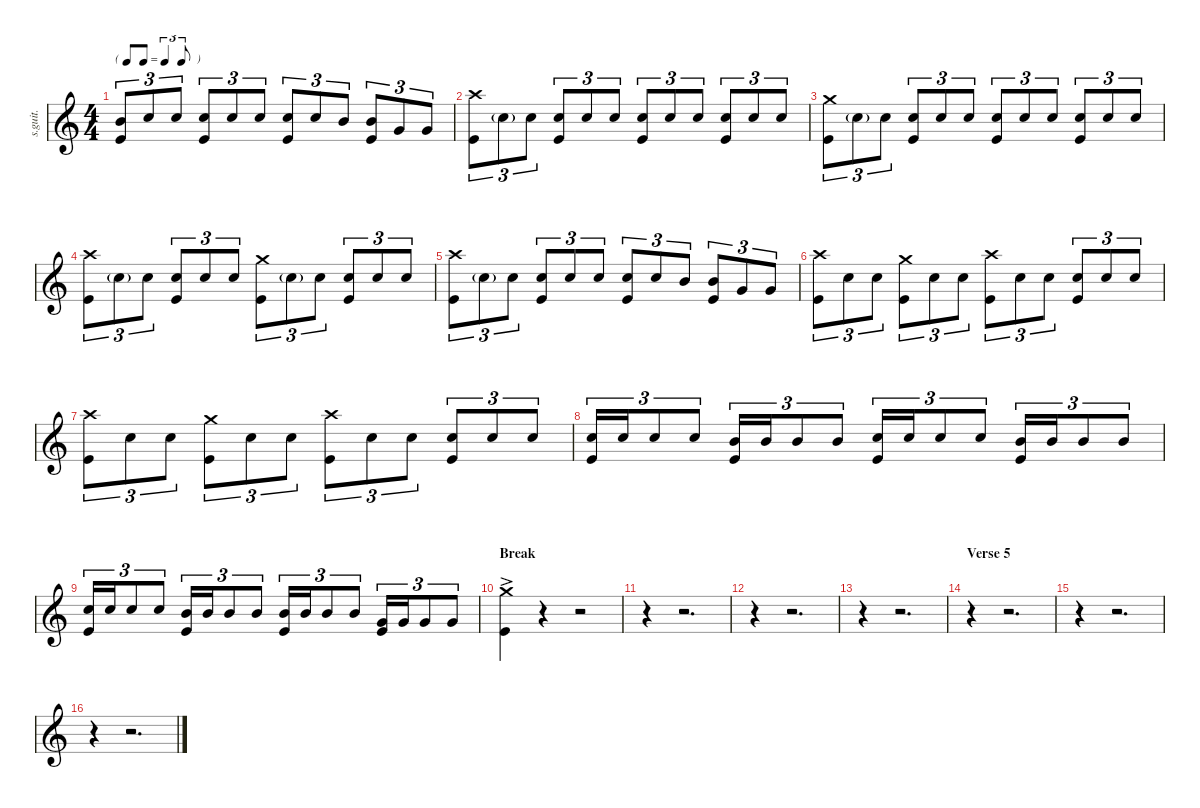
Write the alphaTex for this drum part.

\defaultSystemsLayout 4
\hideDynamics
\bracketExtendMode nobrackets
\track ("Dave Grohl" "s.guit.") {instrument percussion}
\staff {score}
\articulation defaults
\ts (4 4)
\tf triplet8th
\tempo (171 hide)
\clef g2
\ks c
("Kick (hit)" "Mid Tom (hit)").8{tu (3 2) lyrics (0 "") lyrics (1 "") lyrics (2 "") lyrics (3 "") lyrics (4 "") dy mf} "Snare (hit) 2".8{tu (3 2) lyrics (0 "") lyrics (1 "") lyrics (2 "") lyrics (3 "") lyrics (4 "")} "Snare (hit) 2".8{tu (3 2) lyrics (0 "") lyrics (1 "") lyrics (2 "") lyrics (3 "") lyrics (4 "")} ("Kick (hit)" "Snare (hit) 2").8{tu (3 2) lyrics (0 "") lyrics (1 "") lyrics (2 "") lyrics (3 "") lyrics (4 "")} "Snare (hit) 2".8{tu (3 2) lyrics (0 "") lyrics (1 "") lyrics (2 "") lyrics (3 "") lyrics (4 "")} "Snare (hit) 2".8{tu (3 2) lyrics (0 "") lyrics (1 "") lyrics (2 "") lyrics (3 "") lyrics (4 "")} ("Kick (hit)" "Snare (hit) 2").8{tu (3 2) lyrics (0 "") lyrics (1 "") lyrics (2 "") lyrics (3 "") lyrics (4 "")} "Snare (hit) 2".8{tu (3 2) lyrics (0 "") lyrics (1 "") lyrics (2 "") lyrics (3 "") lyrics (4 "")} "Mid Tom (hit)".8{tu (3 2) lyrics (0 "") lyrics (1 "") lyrics (2 "") lyrics (3 "") lyrics (4 "")} ("Kick (hit)" "Mid Tom (hit)").8{tu (3 2) lyrics (0 "") lyrics (1 "") lyrics (2 "") lyrics (3 "") lyrics (4 "")} "Very Low Tom (hit)".8{tu (3 2) lyrics (0 "") lyrics (1 "") lyrics (2 "") lyrics (3 "") lyrics (4 "")} "Very Low Tom (hit)".8{tu (3 2) lyrics (0 "") lyrics (1 "") lyrics (2 "") lyrics (3 "") lyrics (4 "")} |
("Kick (hit)" "Crash high (hit)").8{tu (3 2) lyrics (0 "") lyrics (1 "") lyrics (2 "") lyrics (3 "") lyrics (4 "")} "Snare (hit) 2"{g}.8{tu (3 2) lyrics (0 "") lyrics (1 "") lyrics (2 "") lyrics (3 "") lyrics (4 "") dy fff} "Snare (hit) 2".8{tu (3 2) lyrics (0 "") lyrics (1 "") lyrics (2 "") lyrics (3 "") lyrics (4 "") dy mf} ("Kick (hit)" "Snare (hit) 2").8{tu (3 2) lyrics (0 "") lyrics (1 "") lyrics (2 "") lyrics (3 "") lyrics (4 "")} "Snare (hit) 2".8{tu (3 2) lyrics (0 "") lyrics (1 "") lyrics (2 "") lyrics (3 "") lyrics (4 "")} "Snare (hit) 2".8{tu (3 2) lyrics (0 "") lyrics (1 "") lyrics (2 "") lyrics (3 "") lyrics (4 "")} ("Kick (hit)" "Snare (hit) 2").8{tu (3 2) lyrics (0 "") lyrics (1 "") lyrics (2 "") lyrics (3 "") lyrics (4 "")} "Snare (hit) 2".8{tu (3 2) lyrics (0 "") lyrics (1 "") lyrics (2 "") lyrics (3 "") lyrics (4 "")} "Snare (hit) 2".8{tu (3 2) lyrics (0 "") lyrics (1 "") lyrics (2 "") lyrics (3 "") lyrics (4 "")} ("Kick (hit)" "Snare (hit) 2").8{tu (3 2) lyrics (0 "") lyrics (1 "") lyrics (2 "") lyrics (3 "") lyrics (4 "")} "Snare (hit) 2".8{tu (3 2) lyrics (0 "") lyrics (1 "") lyrics (2 "") lyrics (3 "") lyrics (4 "")} "Snare (hit) 2".8{tu (3 2) lyrics (0 "") lyrics (1 "") lyrics (2 "") lyrics (3 "") lyrics (4 "")} |
("Kick (hit)" "Crash medium (hit)").8{tu (3 2) lyrics (0 "") lyrics (1 "") lyrics (2 "") lyrics (3 "") lyrics (4 "")} "Snare (hit) 2"{g}.8{tu (3 2) lyrics (0 "") lyrics (1 "") lyrics (2 "") lyrics (3 "") lyrics (4 "") dy fff} "Snare (hit) 2".8{tu (3 2) lyrics (0 "") lyrics (1 "") lyrics (2 "") lyrics (3 "") lyrics (4 "") dy mf} ("Kick (hit)" "Snare (hit) 2").8{tu (3 2) lyrics (0 "") lyrics (1 "") lyrics (2 "") lyrics (3 "") lyrics (4 "")} "Snare (hit) 2".8{tu (3 2) lyrics (0 "") lyrics (1 "") lyrics (2 "") lyrics (3 "") lyrics (4 "")} "Snare (hit) 2".8{tu (3 2) lyrics (0 "") lyrics (1 "") lyrics (2 "") lyrics (3 "") lyrics (4 "")} ("Kick (hit)" "Snare (hit) 2").8{tu (3 2) lyrics (0 "") lyrics (1 "") lyrics (2 "") lyrics (3 "") lyrics (4 "")} "Snare (hit) 2".8{tu (3 2) lyrics (0 "") lyrics (1 "") lyrics (2 "") lyrics (3 "") lyrics (4 "")} "Snare (hit) 2".8{tu (3 2) lyrics (0 "") lyrics (1 "") lyrics (2 "") lyrics (3 "") lyrics (4 "")} ("Kick (hit)" "Snare (hit) 2").8{tu (3 2) lyrics (0 "") lyrics (1 "") lyrics (2 "") lyrics (3 "") lyrics (4 "")} "Snare (hit) 2".8{tu (3 2) lyrics (0 "") lyrics (1 "") lyrics (2 "") lyrics (3 "") lyrics (4 "")} "Snare (hit) 2".8{tu (3 2) lyrics (0 "") lyrics (1 "") lyrics (2 "") lyrics (3 "") lyrics (4 "")} |
("Kick (hit)" "Crash high (hit)").8{tu (3 2) lyrics (0 "") lyrics (1 "") lyrics (2 "") lyrics (3 "") lyrics (4 "")} "Snare (hit) 2"{g}.8{tu (3 2) lyrics (0 "") lyrics (1 "") lyrics (2 "") lyrics (3 "") lyrics (4 "") dy fff} "Snare (hit) 2".8{tu (3 2) lyrics (0 "") lyrics (1 "") lyrics (2 "") lyrics (3 "") lyrics (4 "") dy mf} ("Kick (hit)" "Snare (hit) 2").8{tu (3 2) lyrics (0 "") lyrics (1 "") lyrics (2 "") lyrics (3 "") lyrics (4 "")} "Snare (hit) 2".8{tu (3 2) lyrics (0 "") lyrics (1 "") lyrics (2 "") lyrics (3 "") lyrics (4 "")} "Snare (hit) 2".8{tu (3 2) lyrics (0 "") lyrics (1 "") lyrics (2 "") lyrics (3 "") lyrics (4 "")} ("Kick (hit)" "Crash medium (hit)").8{tu (3 2) lyrics (0 "") lyrics (1 "") lyrics (2 "") lyrics (3 "") lyrics (4 "")} "Snare (hit) 2"{g}.8{tu (3 2) lyrics (0 "") lyrics (1 "") lyrics (2 "") lyrics (3 "") lyrics (4 "") dy fff} "Snare (hit) 2".8{tu (3 2) lyrics (0 "") lyrics (1 "") lyrics (2 "") lyrics (3 "") lyrics (4 "") dy mf} ("Kick (hit)" "Snare (hit) 2").8{tu (3 2) lyrics (0 "") lyrics (1 "") lyrics (2 "") lyrics (3 "") lyrics (4 "")} "Snare (hit) 2".8{tu (3 2) lyrics (0 "") lyrics (1 "") lyrics (2 "") lyrics (3 "") lyrics (4 "")} "Snare (hit) 2".8{tu (3 2) lyrics (0 "") lyrics (1 "") lyrics (2 "") lyrics (3 "") lyrics (4 "")} |
("Kick (hit)" "Crash high (hit)").8{tu (3 2) lyrics (0 "") lyrics (1 "") lyrics (2 "") lyrics (3 "") lyrics (4 "")} "Snare (hit) 2"{g}.8{tu (3 2) lyrics (0 "") lyrics (1 "") lyrics (2 "") lyrics (3 "") lyrics (4 "") dy fff} "Snare (hit) 2".8{tu (3 2) lyrics (0 "") lyrics (1 "") lyrics (2 "") lyrics (3 "") lyrics (4 "") dy mf} ("Kick (hit)" "Snare (hit) 2").8{tu (3 2) lyrics (0 "") lyrics (1 "") lyrics (2 "") lyrics (3 "") lyrics (4 "")} "Snare (hit) 2".8{tu (3 2) lyrics (0 "") lyrics (1 "") lyrics (2 "") lyrics (3 "") lyrics (4 "")} "Snare (hit) 2".8{tu (3 2) lyrics (0 "") lyrics (1 "") lyrics (2 "") lyrics (3 "") lyrics (4 "")} ("Kick (hit)" "Snare (hit) 2").8{tu (3 2) lyrics (0 "") lyrics (1 "") lyrics (2 "") lyrics (3 "") lyrics (4 "")} "Snare (hit) 2".8{tu (3 2) lyrics (0 "") lyrics (1 "") lyrics (2 "") lyrics (3 "") lyrics (4 "")} "Mid Tom (hit)".8{tu (3 2) lyrics (0 "") lyrics (1 "") lyrics (2 "") lyrics (3 "") lyrics (4 "")} ("Kick (hit)" "Mid Tom (hit)").8{tu (3 2) lyrics (0 "") lyrics (1 "") lyrics (2 "") lyrics (3 "") lyrics (4 "")} "Very Low Tom (hit)".8{tu (3 2) lyrics (0 "") lyrics (1 "") lyrics (2 "") lyrics (3 "") lyrics (4 "")} "Very Low Tom (hit)".8{tu (3 2) lyrics (0 "") lyrics (1 "") lyrics (2 "") lyrics (3 "") lyrics (4 "")} |
("Kick (hit)" "Crash high (hit)").8{tu (3 2) lyrics (0 "") lyrics (1 "") lyrics (2 "") lyrics (3 "") lyrics (4 "")} "Snare (hit) 2".8{tu (3 2) lyrics (0 "") lyrics (1 "") lyrics (2 "") lyrics (3 "") lyrics (4 "")} "Snare (hit) 2".8{tu (3 2) lyrics (0 "") lyrics (1 "") lyrics (2 "") lyrics (3 "") lyrics (4 "")} ("Kick (hit)" "Crash medium (hit)").8{tu (3 2) lyrics (0 "") lyrics (1 "") lyrics (2 "") lyrics (3 "") lyrics (4 "")} "Snare (hit) 2".8{tu (3 2) lyrics (0 "") lyrics (1 "") lyrics (2 "") lyrics (3 "") lyrics (4 "")} "Snare (hit) 2".8{tu (3 2) lyrics (0 "") lyrics (1 "") lyrics (2 "") lyrics (3 "") lyrics (4 "")} ("Kick (hit)" "Crash high (hit)").8{tu (3 2) lyrics (0 "") lyrics (1 "") lyrics (2 "") lyrics (3 "") lyrics (4 "")} "Snare (hit) 2".8{tu (3 2) lyrics (0 "") lyrics (1 "") lyrics (2 "") lyrics (3 "") lyrics (4 "")} "Snare (hit) 2".8{tu (3 2) lyrics (0 "") lyrics (1 "") lyrics (2 "") lyrics (3 "") lyrics (4 "")} ("Kick (hit)" "Snare (hit) 2").8{tu (3 2) lyrics (0 "") lyrics (1 "") lyrics (2 "") lyrics (3 "") lyrics (4 "")} "Snare (hit) 2".8{tu (3 2) lyrics (0 "") lyrics (1 "") lyrics (2 "") lyrics (3 "") lyrics (4 "")} "Snare (hit) 2".8{tu (3 2) lyrics (0 "") lyrics (1 "") lyrics (2 "") lyrics (3 "") lyrics (4 "")} |
("Kick (hit)" "Crash high (hit)").8{tu (3 2) lyrics (0 "") lyrics (1 "") lyrics (2 "") lyrics (3 "") lyrics (4 "")} "Snare (hit) 2".8{tu (3 2) lyrics (0 "") lyrics (1 "") lyrics (2 "") lyrics (3 "") lyrics (4 "")} "Snare (hit) 2".8{tu (3 2) lyrics (0 "") lyrics (1 "") lyrics (2 "") lyrics (3 "") lyrics (4 "")} ("Kick (hit)" "Crash medium (hit)").8{tu (3 2) lyrics (0 "") lyrics (1 "") lyrics (2 "") lyrics (3 "") lyrics (4 "")} "Snare (hit) 2".8{tu (3 2) lyrics (0 "") lyrics (1 "") lyrics (2 "") lyrics (3 "") lyrics (4 "")} "Snare (hit) 2".8{tu (3 2) lyrics (0 "") lyrics (1 "") lyrics (2 "") lyrics (3 "") lyrics (4 "")} ("Kick (hit)" "Crash high (hit)").8{tu (3 2) lyrics (0 "") lyrics (1 "") lyrics (2 "") lyrics (3 "") lyrics (4 "")} "Snare (hit) 2".8{tu (3 2) lyrics (0 "") lyrics (1 "") lyrics (2 "") lyrics (3 "") lyrics (4 "")} "Snare (hit) 2".8{tu (3 2) lyrics (0 "") lyrics (1 "") lyrics (2 "") lyrics (3 "") lyrics (4 "")} ("Kick (hit)" "Snare (hit) 2").8{tu (3 2) lyrics (0 "") lyrics (1 "") lyrics (2 "") lyrics (3 "") lyrics (4 "")} "Snare (hit) 2".8{tu (3 2) lyrics (0 "") lyrics (1 "") lyrics (2 "") lyrics (3 "") lyrics (4 "")} "Snare (hit) 2".8{tu (3 2) lyrics (0 "") lyrics (1 "") lyrics (2 "") lyrics (3 "") lyrics (4 "")} |
("Snare (hit) 2" "Kick (hit)").16{tu (3 2) lyrics (0 "") lyrics (1 "") lyrics (2 "") lyrics (3 "") lyrics (4 "")} "Snare (hit) 2".16{tu (3 2) lyrics (0 "") lyrics (1 "") lyrics (2 "") lyrics (3 "") lyrics (4 "")} "Snare (hit) 2".8{tu (3 2) lyrics (0 "") lyrics (1 "") lyrics (2 "") lyrics (3 "") lyrics (4 "")} "Snare (hit) 2".8{tu (3 2) lyrics (0 "") lyrics (1 "") lyrics (2 "") lyrics (3 "") lyrics (4 "")} ("Mid Tom (hit)" "Kick (hit)").16{tu (3 2) lyrics (0 "") lyrics (1 "") lyrics (2 "") lyrics (3 "") lyrics (4 "")} "Mid Tom (hit)".16{tu (3 2) lyrics (0 "") lyrics (1 "") lyrics (2 "") lyrics (3 "") lyrics (4 "")} "Mid Tom (hit)".8{tu (3 2) lyrics (0 "") lyrics (1 "") lyrics (2 "") lyrics (3 "") lyrics (4 "")} "Mid Tom (hit)".8{tu (3 2) lyrics (0 "") lyrics (1 "") lyrics (2 "") lyrics (3 "") lyrics (4 "")} ("Snare (hit) 2" "Kick (hit)").16{tu (3 2) lyrics (0 "") lyrics (1 "") lyrics (2 "") lyrics (3 "") lyrics (4 "")} "Snare (hit) 2".16{tu (3 2) lyrics (0 "") lyrics (1 "") lyrics (2 "") lyrics (3 "") lyrics (4 "")} "Snare (hit) 2".8{tu (3 2) lyrics (0 "") lyrics (1 "") lyrics (2 "") lyrics (3 "") lyrics (4 "")} "Snare (hit) 2".8{tu (3 2) lyrics (0 "") lyrics (1 "") lyrics (2 "") lyrics (3 "") lyrics (4 "")} ("Mid Tom (hit)" "Kick (hit)").16{tu (3 2) lyrics (0 "") lyrics (1 "") lyrics (2 "") lyrics (3 "") lyrics (4 "")} "Mid Tom (hit)".16{tu (3 2) lyrics (0 "") lyrics (1 "") lyrics (2 "") lyrics (3 "") lyrics (4 "")} "Mid Tom (hit)".8{tu (3 2) lyrics (0 "") lyrics (1 "") lyrics (2 "") lyrics (3 "") lyrics (4 "")} "Mid Tom (hit)".8{tu (3 2) lyrics (0 "") lyrics (1 "") lyrics (2 "") lyrics (3 "") lyrics (4 "")} |
("Snare (hit) 2" "Kick (hit)").16{tu (3 2) lyrics (0 "") lyrics (1 "") lyrics (2 "") lyrics (3 "") lyrics (4 "")} "Snare (hit) 2".16{tu (3 2) lyrics (0 "") lyrics (1 "") lyrics (2 "") lyrics (3 "") lyrics (4 "")} "Snare (hit) 2".8{tu (3 2) lyrics (0 "") lyrics (1 "") lyrics (2 "") lyrics (3 "") lyrics (4 "")} "Snare (hit) 2".8{tu (3 2) lyrics (0 "") lyrics (1 "") lyrics (2 "") lyrics (3 "") lyrics (4 "")} ("Mid Tom (hit)" "Kick (hit)").16{tu (3 2) lyrics (0 "") lyrics (1 "") lyrics (2 "") lyrics (3 "") lyrics (4 "")} "Mid Tom (hit)".16{tu (3 2) lyrics (0 "") lyrics (1 "") lyrics (2 "") lyrics (3 "") lyrics (4 "")} "Mid Tom (hit)".8{tu (3 2) lyrics (0 "") lyrics (1 "") lyrics (2 "") lyrics (3 "") lyrics (4 "")} "Mid Tom (hit)".8{tu (3 2) lyrics (0 "") lyrics (1 "") lyrics (2 "") lyrics (3 "") lyrics (4 "")} ("Kick (hit)" "Mid Tom (hit)").16{tu (3 2) lyrics (0 "") lyrics (1 "") lyrics (2 "") lyrics (3 "") lyrics (4 "")} "Mid Tom (hit)".16{tu (3 2) lyrics (0 "") lyrics (1 "") lyrics (2 "") lyrics (3 "") lyrics (4 "")} "Mid Tom (hit)".8{tu (3 2) lyrics (0 "") lyrics (1 "") lyrics (2 "") lyrics (3 "") lyrics (4 "")} "Mid Tom (hit)".8{tu (3 2) lyrics (0 "") lyrics (1 "") lyrics (2 "") lyrics (3 "") lyrics (4 "")} ("Kick (hit)" "Very Low Tom (hit)").16{tu (3 2) lyrics (0 "") lyrics (1 "") lyrics (2 "") lyrics (3 "") lyrics (4 "")} "Very Low Tom (hit)".16{tu (3 2) lyrics (0 "") lyrics (1 "") lyrics (2 "") lyrics (3 "") lyrics (4 "")} "Very Low Tom (hit)".8{tu (3 2) lyrics (0 "") lyrics (1 "") lyrics (2 "") lyrics (3 "") lyrics (4 "")} "Very Low Tom (hit)".8{tu (3 2) lyrics (0 "") lyrics (1 "") lyrics (2 "") lyrics (3 "") lyrics (4 "")} |
\section ("" "Break")
("Kick (hit)"{ac} "Crash medium (hit)"{ac}).4{lyrics (0 "") lyrics (1 "") lyrics (2 "") lyrics (3 "") lyrics (4 "") dy ppp} r.4 r.2 |
r.4 r.2{d} |
r.4 r.2{d} |
r.4 r.2{d} |
\section ("" "Verse 5")
r.4 r.2{d} |
r.4 r.2{d} |
r.4 r.2{d}
